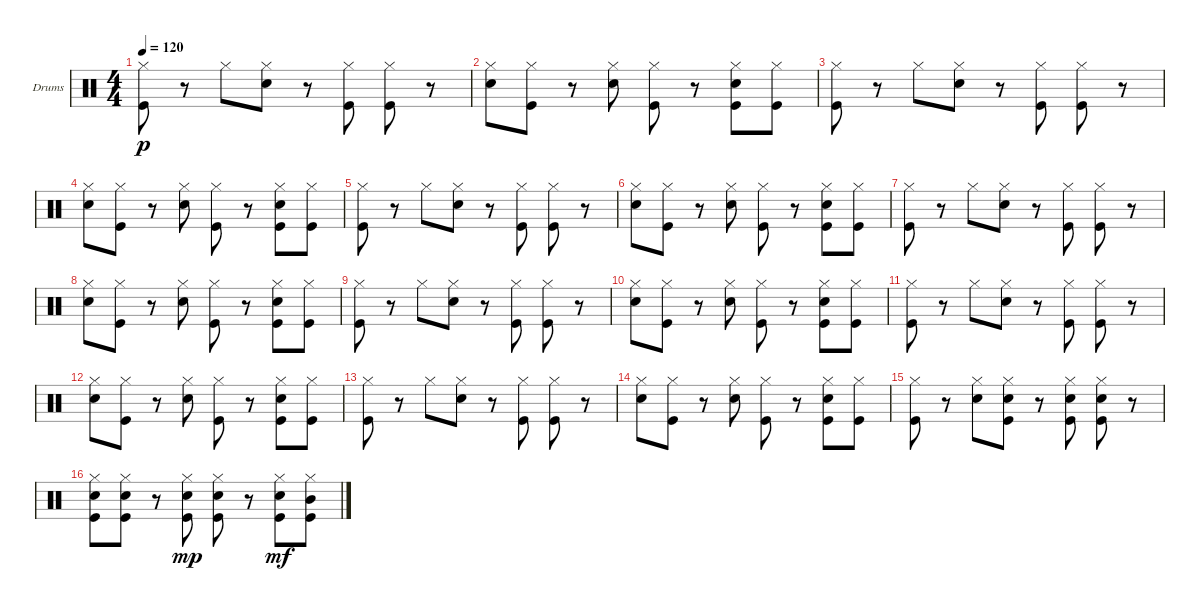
\defaultSystemsLayout 4
\bracketExtendMode groupsimilarinstruments
\firstSystemTrackNameOrientation horizontal
\otherSystemsTrackNameOrientation horizontal
\track ("Drumkit" "Drums") {instrument percussion}
\staff {score}
\articulation defaults
\ts (4 4)
\tempo 120
\clef neutral
\ks c
("Hi-Hat (closed)" "Kick (hit)").8{dy p} r.8 "Hi-Hat (closed)".8 ("Hi-Hat (closed)" "Snare (hit) 2").8 r.8 ("Hi-Hat (closed)" "Kick (hit)").8 ("Hi-Hat (closed)" "Kick (hit)").8 r.8 |
("Hi-Hat (closed)" "Snare (hit) 2").8 ("Hi-Hat (closed)" "Kick (hit)").8 r.8 ("Hi-Hat (closed)" "Snare (hit) 2").8 ("Hi-Hat (closed)" "Kick (hit)").8 r.8 ("Hi-Hat (closed)" "Snare (hit) 2" "Kick (hit)").8 ("Hi-Hat (closed)" "Kick (hit)").8 |
("Hi-Hat (closed)" "Kick (hit)").8 r.8 "Hi-Hat (closed)".8 ("Hi-Hat (closed)" "Snare (hit) 2").8 r.8 ("Hi-Hat (closed)" "Kick (hit)").8 ("Hi-Hat (closed)" "Kick (hit)").8 r.8 |
("Hi-Hat (closed)" "Snare (hit) 2").8 ("Hi-Hat (closed)" "Kick (hit)").8 r.8 ("Hi-Hat (closed)" "Snare (hit) 2").8 ("Hi-Hat (closed)" "Kick (hit)").8 r.8 ("Hi-Hat (closed)" "Snare (hit) 2" "Kick (hit)").8 ("Hi-Hat (closed)" "Kick (hit)").8 |
("Hi-Hat (closed)" "Kick (hit)").8 r.8 "Hi-Hat (closed)".8 ("Hi-Hat (closed)" "Snare (hit) 2").8 r.8 ("Hi-Hat (closed)" "Kick (hit)").8 ("Hi-Hat (closed)" "Kick (hit)").8 r.8 |
("Hi-Hat (closed)" "Snare (hit) 2").8 ("Hi-Hat (closed)" "Kick (hit)").8 r.8 ("Hi-Hat (closed)" "Snare (hit) 2").8 ("Hi-Hat (closed)" "Kick (hit)").8 r.8 ("Hi-Hat (closed)" "Snare (hit) 2" "Kick (hit)").8 ("Hi-Hat (closed)" "Kick (hit)").8 |
("Hi-Hat (closed)" "Kick (hit)").8 r.8 "Hi-Hat (closed)".8 ("Hi-Hat (closed)" "Snare (hit) 2").8 r.8 ("Hi-Hat (closed)" "Kick (hit)").8 ("Hi-Hat (closed)" "Kick (hit)").8 r.8 |
("Hi-Hat (closed)" "Snare (hit) 2").8 ("Hi-Hat (closed)" "Kick (hit)").8 r.8 ("Hi-Hat (closed)" "Snare (hit) 2").8 ("Hi-Hat (closed)" "Kick (hit)").8 r.8 ("Hi-Hat (closed)" "Snare (hit) 2" "Kick (hit)").8 ("Hi-Hat (closed)" "Kick (hit)").8 |
("Hi-Hat (closed)" "Kick (hit)").8 r.8 "Hi-Hat (closed)".8 ("Hi-Hat (closed)" "Snare (hit) 2").8 r.8 ("Hi-Hat (closed)" "Kick (hit)").8 ("Hi-Hat (closed)" "Kick (hit)").8 r.8 |
("Hi-Hat (closed)" "Snare (hit) 2").8 ("Hi-Hat (closed)" "Kick (hit)").8 r.8 ("Hi-Hat (closed)" "Snare (hit) 2").8 ("Hi-Hat (closed)" "Kick (hit)").8 r.8 ("Hi-Hat (closed)" "Snare (hit) 2" "Kick (hit)").8 ("Hi-Hat (closed)" "Kick (hit)").8 |
("Hi-Hat (closed)" "Kick (hit)").8 r.8 "Hi-Hat (closed)".8 ("Hi-Hat (closed)" "Snare (hit) 2").8 r.8 ("Hi-Hat (closed)" "Kick (hit)").8 ("Hi-Hat (closed)" "Kick (hit)").8 r.8 |
("Hi-Hat (closed)" "Snare (hit) 2").8 ("Hi-Hat (closed)" "Kick (hit)").8 r.8 ("Hi-Hat (closed)" "Snare (hit) 2").8 ("Hi-Hat (closed)" "Kick (hit)").8 r.8 ("Hi-Hat (closed)" "Snare (hit) 2" "Kick (hit)").8 ("Hi-Hat (closed)" "Kick (hit)").8 |
("Hi-Hat (closed)" "Kick (hit)").8 r.8 "Hi-Hat (closed)".8 ("Hi-Hat (closed)" "Snare (hit) 2").8 r.8 ("Hi-Hat (closed)" "Kick (hit)").8 ("Hi-Hat (closed)" "Kick (hit)").8 r.8 |
("Hi-Hat (closed)" "Snare (hit) 2").8 ("Hi-Hat (closed)" "Kick (hit)").8 r.8 ("Hi-Hat (closed)" "Snare (hit) 2").8 ("Hi-Hat (closed)" "Kick (hit)").8 r.8 ("Hi-Hat (closed)" "Snare (hit) 2" "Kick (hit)").8 ("Hi-Hat (closed)" "Kick (hit)").8 |
("Hi-Hat (closed)" "Kick (hit)").8 r.8 ("Hi-Hat (closed)" "Snare (hit) 2").8 ("Hi-Hat (closed)" "Snare (hit) 2" "Kick (hit)").8 r.8 ("Hi-Hat (closed)" "Kick (hit)" "Snare (hit) 2").8 ("Hi-Hat (closed)" "Kick (hit)" "Snare (hit) 2").8 r.8 |
("Hi-Hat (closed)" "Snare (hit) 2" "Kick (hit)").8 ("Hi-Hat (closed)" "Kick (hit)" "Snare (hit) 2").8 r.8 ("Hi-Hat (closed)" "Snare (hit) 2" "Kick (hit)").8{dy mp} ("Hi-Hat (closed)" "Kick (hit)" "Snare (hit) 2").8 r.8 ("Hi-Hat (closed)" "Snare (hit) 2" "Kick (hit)").8{dy mf} ("Hi-Hat (closed)" "Kick (hit)" "Mid Tom (hit)").8
